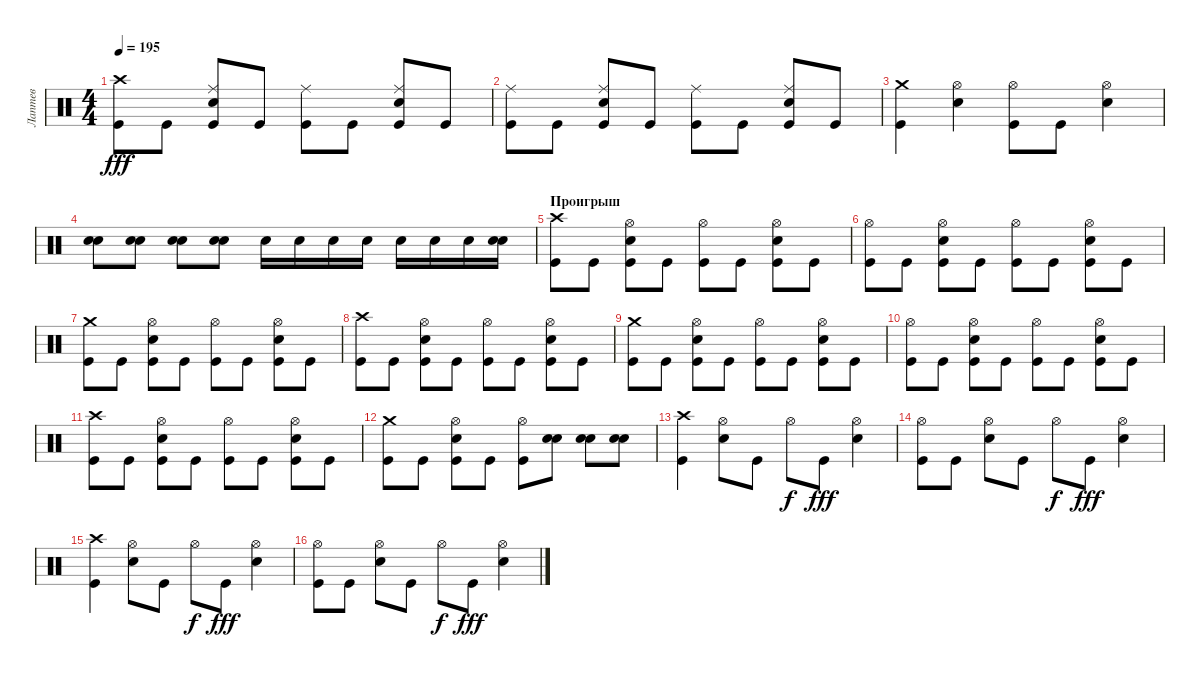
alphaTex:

\track ("Лаптев" "Лаптев") {instrument percussion}
\staff {score}
\articulation defaults
\ts (4 4)
\tempo 195
\clef neutral
\ks c
("Crash high (hit)" "Kick (hit)").8{dy fff} "Kick (hit)".8 ("Ride (middle)" "Electric Snare (hit)" "Kick (hit)").8 "Kick (hit)".8 ("Ride (middle)" "Kick (hit)").8 "Kick (hit)".8 ("Ride (middle)" "Electric Snare (hit)" "Kick (hit)").8 "Kick (hit)".8 |
("Ride (middle)" "Kick (hit)").8 "Kick (hit)".8 ("Ride (middle)" "Electric Snare (hit)" "Kick (hit)").8 "Kick (hit)".8 ("Ride (middle)" "Kick (hit)").8 "Kick (hit)".8 ("Ride (middle)" "Electric Snare (hit)" "Kick (hit)").8 "Kick (hit)".8 |
("Crash medium (hit)" "Kick (hit)").4 ("Hi-Hat (open)" "Electric Snare (hit)").4 ("Hi-Hat (open)" "Kick (hit)").8 "Kick (hit)".8 ("Hi-Hat (open)" "Electric Snare (hit)").4 |
("Electric Snare (hit)" "Electric Snare (hit)").8 ("Electric Snare (hit)" "Electric Snare (hit)").8 ("Electric Snare (hit)" "Electric Snare (hit)").8 ("Electric Snare (hit)" "Electric Snare (hit)").8 "Electric Snare (hit)".16 "Electric Snare (hit)".16 "Electric Snare (hit)".16 "Electric Snare (hit)".16 "Electric Snare (hit)".16 "Electric Snare (hit)".16 "Electric Snare (hit)".16 ("Electric Snare (hit)" "Electric Snare (hit)").16 |
\section ("" "Проигрыш")
("Crash high (hit)" "Kick (hit)").8 "Kick (hit)".8 ("Hi-Hat (open)" "Electric Snare (hit)" "Kick (hit)").8 "Kick (hit)".8 ("Hi-Hat (open)" "Kick (hit)").8 "Kick (hit)".8 ("Hi-Hat (open)" "Electric Snare (hit)" "Kick (hit)").8 "Kick (hit)".8 |
("Hi-Hat (open)" "Kick (hit)").8 "Kick (hit)".8 ("Hi-Hat (open)" "Electric Snare (hit)" "Kick (hit)").8 "Kick (hit)".8 ("Hi-Hat (open)" "Kick (hit)").8 "Kick (hit)".8 ("Hi-Hat (open)" "Electric Snare (hit)" "Kick (hit)").8 "Kick (hit)".8 |
("Crash medium (hit)" "Kick (hit)").8 "Kick (hit)".8 ("Hi-Hat (open)" "Electric Snare (hit)" "Kick (hit)").8 "Kick (hit)".8 ("Hi-Hat (open)" "Kick (hit)").8 "Kick (hit)".8 ("Hi-Hat (open)" "Electric Snare (hit)" "Kick (hit)").8 "Kick (hit)".8 |
("Crash high (hit)" "Kick (hit)").8 "Kick (hit)".8 ("Hi-Hat (open)" "Electric Snare (hit)" "Kick (hit)").8 "Kick (hit)".8 ("Hi-Hat (open)" "Kick (hit)").8 "Kick (hit)".8 ("Hi-Hat (open)" "Electric Snare (hit)" "Kick (hit)").8 "Kick (hit)".8 |
("Crash medium (hit)" "Kick (hit)").8 "Kick (hit)".8 ("Hi-Hat (open)" "Electric Snare (hit)" "Kick (hit)").8 "Kick (hit)".8 ("Hi-Hat (open)" "Kick (hit)").8 "Kick (hit)".8 ("Hi-Hat (open)" "Electric Snare (hit)" "Kick (hit)").8 "Kick (hit)".8 |
("Hi-Hat (open)" "Kick (hit)").8 "Kick (hit)".8 ("Hi-Hat (open)" "Electric Snare (hit)" "Kick (hit)").8 "Kick (hit)".8 ("Hi-Hat (open)" "Kick (hit)").8 "Kick (hit)".8 ("Hi-Hat (open)" "Electric Snare (hit)" "Kick (hit)").8 "Kick (hit)".8 |
("Crash high (hit)" "Kick (hit)").8 "Kick (hit)".8 ("Hi-Hat (open)" "Electric Snare (hit)" "Kick (hit)").8 "Kick (hit)".8 ("Hi-Hat (open)" "Kick (hit)").8 "Kick (hit)".8 ("Hi-Hat (open)" "Electric Snare (hit)" "Kick (hit)").8 "Kick (hit)".8 |
("Crash medium (hit)" "Kick (hit)").8 "Kick (hit)".8 ("Hi-Hat (open)" "Electric Snare (hit)" "Kick (hit)").8 "Kick (hit)".8 ("Hi-Hat (open)" "Kick (hit)").8 ("Electric Snare (hit)" "Electric Snare (hit)").8 ("Electric Snare (hit)" "Electric Snare (hit)").8 ("Electric Snare (hit)" "Electric Snare (hit)").8 |
("Crash high (hit)" "Kick (hit)").4 ("Hi-Hat (open)" "Electric Snare (hit)").8 "Kick (hit)".8 "Hi-Hat (open)".8{dy f} "Kick (hit)".8{dy fff} ("Hi-Hat (open)" "Electric Snare (hit)").4 |
("Hi-Hat (open)" "Kick (hit)").8 "Kick (hit)".8 ("Hi-Hat (open)" "Electric Snare (hit)").8 "Kick (hit)".8 "Hi-Hat (open)".8{dy f} "Kick (hit)".8{dy fff} ("Hi-Hat (open)" "Electric Snare (hit)").4 |
("Crash high (hit)" "Kick (hit)").4 ("Hi-Hat (open)" "Electric Snare (hit)").8 "Kick (hit)".8 "Hi-Hat (open)".8{dy f} "Kick (hit)".8{dy fff} ("Hi-Hat (open)" "Electric Snare (hit)").4 |
("Hi-Hat (open)" "Kick (hit)").8 "Kick (hit)".8 ("Hi-Hat (open)" "Electric Snare (hit)").8 "Kick (hit)".8 "Hi-Hat (open)".8{dy f} "Kick (hit)".8{dy fff} ("Hi-Hat (open)" "Electric Snare (hit)").4
